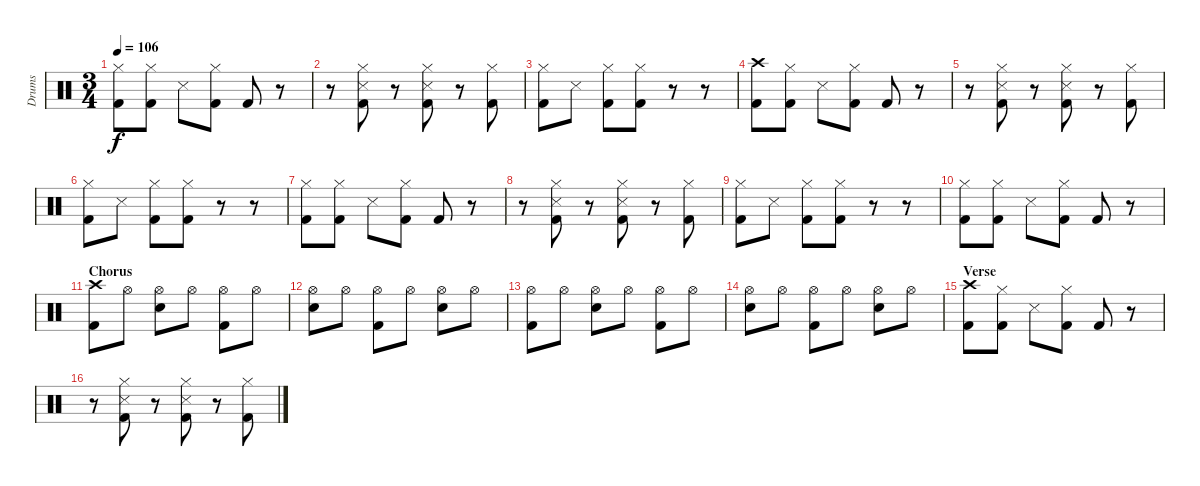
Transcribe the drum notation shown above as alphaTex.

\track ("Drums" "Drums") {instrument percussion}
\staff {score}
\articulation defaults
\ts (3 4)
\tempo 106
\clef neutral
\ks c
("Hi-Hat (closed)" "Kick (hit) 2").8{dy f} ("Hi-Hat (closed)" "Kick (hit) 2").8 "Snare (side stick) 3".8 ("Hi-Hat (closed)" "Kick (hit) 2").8 "Kick (hit) 2".8 r.8 |
r.8 ("Hi-Hat (closed)" "Snare (side stick) 3" "Kick (hit) 2").8 r.8 ("Hi-Hat (closed)" "Snare (side stick) 3" "Kick (hit) 2").8 r.8 ("Hi-Hat (closed)" "Kick (hit) 2").8 |
("Hi-Hat (closed)" "Kick (hit) 2").8 "Snare (side stick) 3".8 ("Hi-Hat (closed)" "Kick (hit) 2").8 ("Hi-Hat (closed)" "Kick (hit) 2").8 r.8 r.8 |
("Crash high (hit)" "Kick (hit) 2").8 ("Hi-Hat (closed)" "Kick (hit) 2").8 "Snare (side stick) 3".8 ("Hi-Hat (closed)" "Kick (hit) 2").8 "Kick (hit) 2".8 r.8 |
r.8 ("Hi-Hat (closed)" "Snare (side stick) 3" "Kick (hit) 2").8 r.8 ("Hi-Hat (closed)" "Snare (side stick) 3" "Kick (hit) 2").8 r.8 ("Hi-Hat (closed)" "Kick (hit) 2").8 |
("Hi-Hat (closed)" "Kick (hit) 2").8 "Snare (side stick) 3".8 ("Hi-Hat (closed)" "Kick (hit) 2").8 ("Hi-Hat (closed)" "Kick (hit) 2").8 r.8 r.8 |
("Hi-Hat (closed)" "Kick (hit) 2").8 ("Hi-Hat (closed)" "Kick (hit) 2").8 "Snare (side stick) 3".8 ("Hi-Hat (closed)" "Kick (hit) 2").8 "Kick (hit) 2".8 r.8 |
r.8 ("Hi-Hat (closed)" "Snare (side stick) 3" "Kick (hit) 2").8 r.8 ("Hi-Hat (closed)" "Snare (side stick) 3" "Kick (hit) 2").8 r.8 ("Hi-Hat (closed)" "Kick (hit) 2").8 |
("Hi-Hat (closed)" "Kick (hit) 2").8 "Snare (side stick) 3".8 ("Hi-Hat (closed)" "Kick (hit) 2").8 ("Hi-Hat (closed)" "Kick (hit) 2").8 r.8 r.8 |
("Hi-Hat (closed)" "Kick (hit) 2").8 ("Hi-Hat (closed)" "Kick (hit) 2").8 "Snare (side stick) 3".8 ("Hi-Hat (closed)" "Kick (hit) 2").8 "Kick (hit) 2".8 r.8 |
\section ("" "Chorus")
("Crash high (hit)" "Kick (hit) 2").8 "Hi-Hat (open)".8 ("Hi-Hat (open)" "Snare (hit) 2").8 "Hi-Hat (open)".8 ("Hi-Hat (open)" "Kick (hit) 2").8 "Hi-Hat (open)".8 |
("Hi-Hat (open)" "Snare (hit) 2").8 "Hi-Hat (open)".8 ("Hi-Hat (open)" "Kick (hit) 2").8 "Hi-Hat (open)".8 ("Hi-Hat (open)" "Snare (hit) 2").8 "Hi-Hat (open)".8 |
("Hi-Hat (open)" "Kick (hit) 2").8 "Hi-Hat (open)".8 ("Hi-Hat (open)" "Snare (hit) 2").8 "Hi-Hat (open)".8 ("Hi-Hat (open)" "Kick (hit) 2").8 "Hi-Hat (open)".8 |
("Hi-Hat (open)" "Snare (hit) 2").8 "Hi-Hat (open)".8 ("Hi-Hat (open)" "Kick (hit) 2").8 "Hi-Hat (open)".8 ("Hi-Hat (open)" "Snare (hit) 2").8 "Hi-Hat (open)".8 |
\section ("" "Verse")
("Crash high (hit)" "Kick (hit) 2").8 ("Hi-Hat (closed)" "Kick (hit) 2").8 "Snare (side stick) 3".8 ("Hi-Hat (closed)" "Kick (hit) 2").8 "Kick (hit) 2".8 r.8 |
r.8 ("Hi-Hat (closed)" "Snare (side stick) 3" "Kick (hit) 2").8 r.8 ("Hi-Hat (closed)" "Snare (side stick) 3" "Kick (hit) 2").8 r.8 ("Hi-Hat (closed)" "Kick (hit) 2").8
